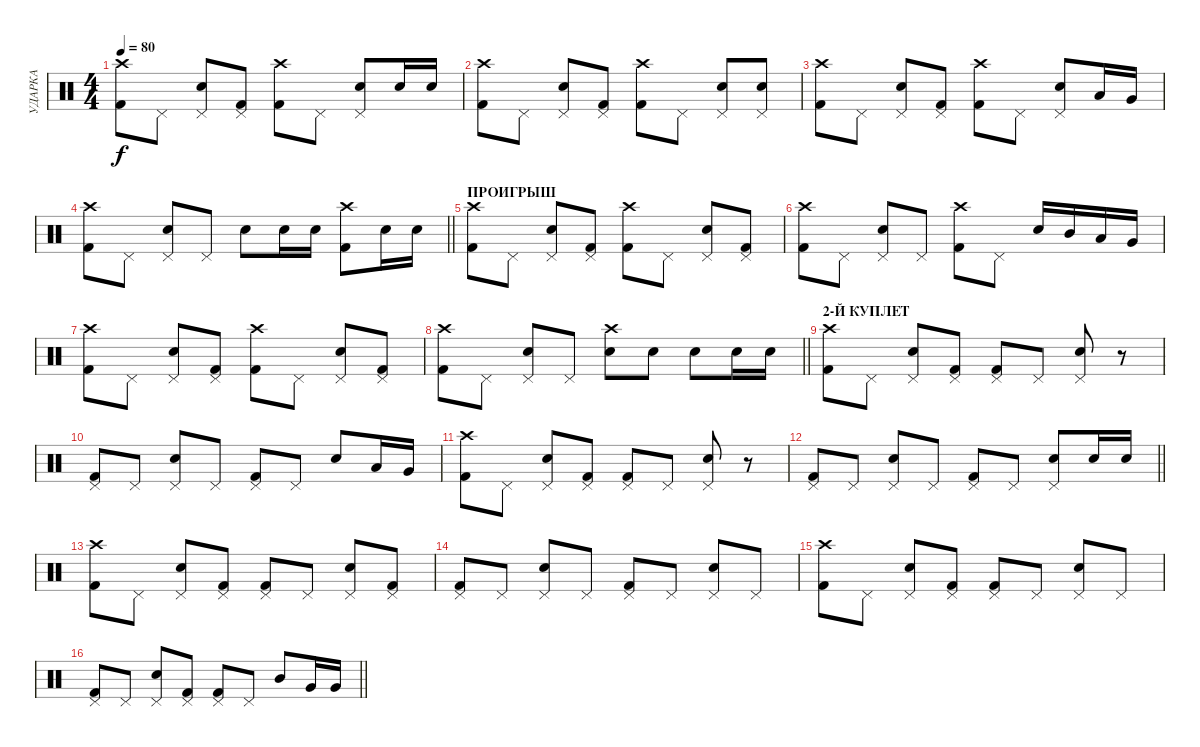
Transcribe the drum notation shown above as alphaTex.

\track ("УДАРКА" "УДАРКА") {instrument percussion}
\staff {score}
\articulation defaults
\ts (4 4)
\tempo 80
\clef neutral
\ks c
("Crash high (hit)" "Kick (hit) 2").8{dy f} "Pedal Hi-Hat (hit)".8 ("Pedal Hi-Hat (hit)" "Electric Snare (hit)").8 ("Pedal Hi-Hat (hit)" "Kick (hit) 2").8 ("Kick (hit) 2" "Crash high (hit)").8 "Pedal Hi-Hat (hit)".8 ("Pedal Hi-Hat (hit)" "Electric Snare (hit)").8 "Electric Snare (hit)".16 "Electric Snare (hit)".16 |
("Kick (hit) 2" "Crash high (hit)").8 "Pedal Hi-Hat (hit)".8 ("Pedal Hi-Hat (hit)" "Electric Snare (hit)").8 ("Pedal Hi-Hat (hit)" "Kick (hit) 2").8 ("Crash high (hit)" "Kick (hit) 2").8 "Pedal Hi-Hat (hit)".8 ("Pedal Hi-Hat (hit)" "Electric Snare (hit)").8 ("Pedal Hi-Hat (hit)" "Electric Snare (hit)").8 |
("Crash high (hit)" "Kick (hit) 2").8 "Pedal Hi-Hat (hit)".8 ("Pedal Hi-Hat (hit)" "Electric Snare (hit)").8 ("Pedal Hi-Hat (hit)" "Kick (hit) 2").8 ("Crash high (hit)" "Kick (hit) 2").8 "Pedal Hi-Hat (hit)".8 ("Pedal Hi-Hat (hit)" "Electric Snare (hit)").8 "Low Tom (hit)".16 "Very Low Tom (hit)".16 |
\barLineRight lightlight
("Crash high (hit)" "Kick (hit) 2").8 "Pedal Hi-Hat (hit)".8 ("Pedal Hi-Hat (hit)" "Electric Snare (hit)").8 "Pedal Hi-Hat (hit)".8 "Electric Snare (hit)".8 "Electric Snare (hit)".16 "Electric Snare (hit)".16 ("Crash high (hit)" "Kick (hit) 2").8 "Electric Snare (hit)".16 "Electric Snare (hit)".16 |
\section ("" "ПРОИГРЫШ")
("Crash high (hit)" "Kick (hit) 2").8 "Pedal Hi-Hat (hit)".8 ("Pedal Hi-Hat (hit)" "Electric Snare (hit)").8 ("Pedal Hi-Hat (hit)" "Kick (hit) 2").8 ("Crash high (hit)" "Kick (hit) 2").8 "Pedal Hi-Hat (hit)".8 ("Pedal Hi-Hat (hit)" "Electric Snare (hit)").8 ("Pedal Hi-Hat (hit)" "Kick (hit) 2").8 |
("Crash high (hit)" "Kick (hit) 2").8 "Pedal Hi-Hat (hit)".8 ("Pedal Hi-Hat (hit)" "Electric Snare (hit)").8 "Pedal Hi-Hat (hit)".8 ("Crash high (hit)" "Kick (hit) 2").8 "Pedal Hi-Hat (hit)".8 "Electric Snare (hit)".16 "Mid Tom (hit)".16 "Low Tom (hit)".16 "Very Low Tom (hit)".16 |
("Crash high (hit)" "Kick (hit) 2").8 "Pedal Hi-Hat (hit)".8 ("Pedal Hi-Hat (hit)" "Electric Snare (hit)").8 ("Pedal Hi-Hat (hit)" "Kick (hit) 2").8 ("Crash high (hit)" "Kick (hit) 2").8 "Pedal Hi-Hat (hit)".8 ("Pedal Hi-Hat (hit)" "Electric Snare (hit)").8 ("Pedal Hi-Hat (hit)" "Kick (hit) 2").8 |
\barLineRight lightlight
("Crash high (hit)" "Kick (hit) 2").8 "Pedal Hi-Hat (hit)".8 ("Pedal Hi-Hat (hit)" "Electric Snare (hit)").8 "Pedal Hi-Hat (hit)".8 ("Crash high (hit)" "Electric Snare (hit)").8 "Electric Snare (hit)".8 "Electric Snare (hit)".8 "Electric Snare (hit)".16 "Electric Snare (hit)".16 |
\section ("" "2-Й КУПЛЕТ")
("Crash high (hit)" "Kick (hit) 2").8 "Pedal Hi-Hat (hit)".8 ("Pedal Hi-Hat (hit)" "Electric Snare (hit)").8 ("Pedal Hi-Hat (hit)" "Kick (hit) 2").8 ("Pedal Hi-Hat (hit)" "Kick (hit) 2").8 "Pedal Hi-Hat (hit)".8 ("Pedal Hi-Hat (hit)" "Electric Snare (hit)").8 r.8 |
("Pedal Hi-Hat (hit)" "Kick (hit) 2").8 "Pedal Hi-Hat (hit)".8 ("Pedal Hi-Hat (hit)" "Electric Snare (hit)").8 "Pedal Hi-Hat (hit)".8 ("Pedal Hi-Hat (hit)" "Kick (hit) 2").8 "Pedal Hi-Hat (hit)".8 "Electric Snare (hit)".8 "Low Tom (hit)".16 "Very Low Tom (hit)".16 |
("Crash high (hit)" "Kick (hit) 2").8 "Pedal Hi-Hat (hit)".8 ("Pedal Hi-Hat (hit)" "Electric Snare (hit)").8 ("Pedal Hi-Hat (hit)" "Kick (hit) 2").8 ("Pedal Hi-Hat (hit)" "Kick (hit) 2").8 "Pedal Hi-Hat (hit)".8 ("Pedal Hi-Hat (hit)" "Electric Snare (hit)").8 r.8 |
\barLineRight lightlight
("Pedal Hi-Hat (hit)" "Kick (hit) 2").8 "Pedal Hi-Hat (hit)".8 ("Pedal Hi-Hat (hit)" "Electric Snare (hit)").8 "Pedal Hi-Hat (hit)".8 ("Pedal Hi-Hat (hit)" "Kick (hit) 2").8 "Pedal Hi-Hat (hit)".8 ("Pedal Hi-Hat (hit)" "Electric Snare (hit)").8 "Electric Snare (hit)".16 "Electric Snare (hit)".16 |
\section ("" "")
("Crash high (hit)" "Kick (hit) 2").8 "Pedal Hi-Hat (hit)".8 ("Pedal Hi-Hat (hit)" "Electric Snare (hit)").8 ("Pedal Hi-Hat (hit)" "Kick (hit) 2").8 ("Pedal Hi-Hat (hit)" "Kick (hit) 2").8 "Pedal Hi-Hat (hit)".8 ("Pedal Hi-Hat (hit)" "Electric Snare (hit)").8 ("Pedal Hi-Hat (hit)" "Kick (hit) 2").8 |
("Pedal Hi-Hat (hit)" "Kick (hit) 2").8 "Pedal Hi-Hat (hit)".8 ("Pedal Hi-Hat (hit)" "Electric Snare (hit)").8 "Pedal Hi-Hat (hit)".8 ("Pedal Hi-Hat (hit)" "Kick (hit) 2").8 "Pedal Hi-Hat (hit)".8 ("Pedal Hi-Hat (hit)" "Electric Snare (hit)").8 "Pedal Hi-Hat (hit)".8 |
("Crash high (hit)" "Kick (hit) 2").8 "Pedal Hi-Hat (hit)".8 ("Pedal Hi-Hat (hit)" "Electric Snare (hit)").8 ("Pedal Hi-Hat (hit)" "Kick (hit) 2").8 ("Pedal Hi-Hat (hit)" "Kick (hit) 2").8 "Pedal Hi-Hat (hit)".8 ("Pedal Hi-Hat (hit)" "Electric Snare (hit)").8 "Pedal Hi-Hat (hit)".8 |
\barLineRight lightlight
("Pedal Hi-Hat (hit)" "Kick (hit) 2").8 "Pedal Hi-Hat (hit)".8 ("Pedal Hi-Hat (hit)" "Electric Snare (hit)").8 ("Pedal Hi-Hat (hit)" "Kick (hit) 2").8 ("Pedal Hi-Hat (hit)" "Kick (hit) 2").8 "Pedal Hi-Hat (hit)".8 "Mid Tom (hit)".8 "Very Low Tom (hit)".16 "Very Low Tom (hit)".16
